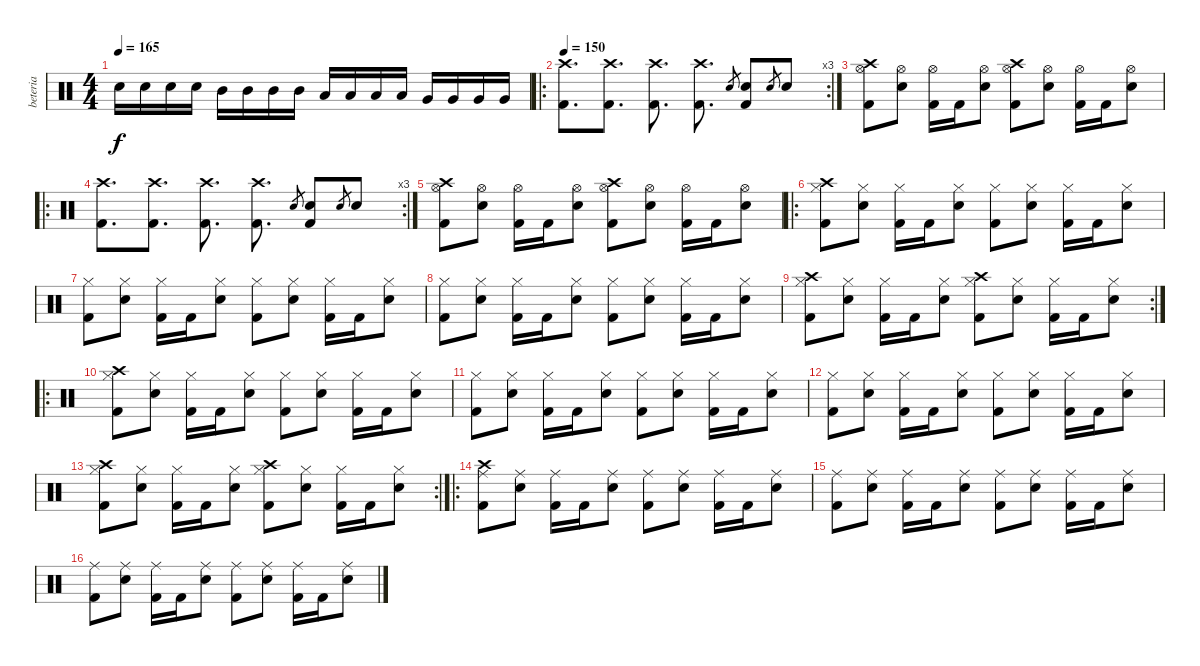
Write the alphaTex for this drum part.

\track ("beteria" "beteria") {instrument percussion}
\staff {score}
\articulation defaults
\ts (4 4)
\tempo 165
\clef neutral
\ks c "Electric Snare (hit)".16{dy f} "Electric Snare (hit)".16 "Electric Snare (hit)".16 "Electric Snare (hit)".16 "Mid Tom (hit)".16 "Mid Tom (hit)".16 "Mid Tom (hit)".16 "Mid Tom (hit)".16 "Low Tom (hit)".16 "Low Tom (hit)".16 "Low Tom (hit)".16 "Low Tom (hit)".16 "Very Low Tom (hit)".16 "Very Low Tom (hit)".16 "Very Low Tom (hit)".16 "Very Low Tom (hit)".16
|
\ro
\rc 3
\tempo 140
\tempo 150
("Kick (hit) 2" "Crash high (hit)").8{d} ("Kick (hit) 2" "Crash high (hit)").8{d} ("Kick (hit) 2" "Crash high (hit)").8{d} ("Kick (hit) 2" "Crash high (hit)").8{d} "Electric Snare (hit)".8{gr} ("Electric Snare (hit)" "Kick (hit) 2").8 "Electric Snare (hit)".8{gr} "Electric Snare (hit)".8 |
("Kick (hit) 2" "Hi-Hat (open)" "Crash high (hit)").8 ("Electric Snare (hit)" "Hi-Hat (open)").8 ("Kick (hit) 2" "Hi-Hat (open)").16 "Kick (hit) 2".16 ("Electric Snare (hit)" "Hi-Hat (open)").8 ("Kick (hit) 2" "Hi-Hat (open)" "Crash high (hit)").8 ("Electric Snare (hit)" "Hi-Hat (open)").8 ("Kick (hit) 2" "Hi-Hat (open)").16 "Kick (hit) 2".16 ("Electric Snare (hit)" "Hi-Hat (open)").8 |
\ro
\rc 3
("Kick (hit) 2" "Crash high (hit)").8{d} ("Kick (hit) 2" "Crash high (hit)").8{d} ("Kick (hit) 2" "Crash high (hit)").8{d} ("Kick (hit) 2" "Crash high (hit)").8{d} "Electric Snare (hit)".8{gr} ("Electric Snare (hit)" "Kick (hit) 2").8 "Electric Snare (hit)".8{gr} "Electric Snare (hit)".8 |
("Kick (hit) 2" "Hi-Hat (open)" "Crash high (hit)").8 ("Electric Snare (hit)" "Hi-Hat (open)").8 ("Kick (hit) 2" "Hi-Hat (open)").16 "Kick (hit) 2".16 ("Electric Snare (hit)" "Hi-Hat (open)").8 ("Kick (hit) 2" "Hi-Hat (open)" "Crash high (hit)").8 ("Electric Snare (hit)" "Hi-Hat (open)").8 ("Kick (hit) 2" "Hi-Hat (open)").16 "Kick (hit) 2".16 ("Electric Snare (hit)" "Hi-Hat (open)").8 |
\ro
("Kick (hit) 2" "Hi-Hat (closed)" "Crash high (hit)").8 ("Electric Snare (hit)" "Hi-Hat (closed)").8 ("Kick (hit) 2" "Hi-Hat (closed)").16 "Kick (hit) 2".16 ("Electric Snare (hit)" "Hi-Hat (closed)").8 ("Kick (hit) 2" "Hi-Hat (closed)").8 ("Electric Snare (hit)" "Hi-Hat (closed)").8 ("Kick (hit) 2" "Hi-Hat (closed)").16 "Kick (hit) 2".16 ("Electric Snare (hit)" "Hi-Hat (closed)").8 |
("Kick (hit) 2" "Hi-Hat (closed)").8 ("Electric Snare (hit)" "Hi-Hat (closed)").8 ("Kick (hit) 2" "Hi-Hat (closed)").16 "Kick (hit) 2".16 ("Electric Snare (hit)" "Hi-Hat (closed)").8 ("Kick (hit) 2" "Hi-Hat (closed)").8 ("Electric Snare (hit)" "Hi-Hat (closed)").8 ("Kick (hit) 2" "Hi-Hat (closed)").16 "Kick (hit) 2".16 ("Electric Snare (hit)" "Hi-Hat (closed)").8 |
("Kick (hit) 2" "Hi-Hat (closed)").8 ("Electric Snare (hit)" "Hi-Hat (closed)").8 ("Kick (hit) 2" "Hi-Hat (closed)").16 "Kick (hit) 2".16 ("Electric Snare (hit)" "Hi-Hat (closed)").8 ("Kick (hit) 2" "Hi-Hat (closed)").8 ("Electric Snare (hit)" "Hi-Hat (closed)").8 ("Kick (hit) 2" "Hi-Hat (closed)").16 "Kick (hit) 2".16 ("Electric Snare (hit)" "Hi-Hat (closed)").8 |
\rc 2
("Kick (hit) 2" "Hi-Hat (closed)" "Crash high (hit)").8 ("Electric Snare (hit)" "Hi-Hat (closed)").8 ("Kick (hit) 2" "Hi-Hat (closed)").16 "Kick (hit) 2".16 ("Electric Snare (hit)" "Hi-Hat (closed)").8 ("Kick (hit) 2" "Hi-Hat (closed)" "Crash high (hit)").8 ("Electric Snare (hit)" "Hi-Hat (closed)").8 ("Kick (hit) 2" "Hi-Hat (closed)").16 "Kick (hit) 2".16 ("Electric Snare (hit)" "Hi-Hat (closed)").8 |
\ro
("Kick (hit) 2" "Hi-Hat (closed)" "Crash high (hit)").8 ("Electric Snare (hit)" "Hi-Hat (closed)").8 ("Kick (hit) 2" "Hi-Hat (closed)").16 "Kick (hit) 2".16 ("Electric Snare (hit)" "Hi-Hat (closed)").8 ("Kick (hit) 2" "Hi-Hat (closed)").8 ("Electric Snare (hit)" "Hi-Hat (closed)").8 ("Kick (hit) 2" "Hi-Hat (closed)").16 "Kick (hit) 2".16 ("Electric Snare (hit)" "Hi-Hat (closed)").8 |
("Kick (hit) 2" "Hi-Hat (closed)").8 ("Electric Snare (hit)" "Hi-Hat (closed)").8 ("Kick (hit) 2" "Hi-Hat (closed)").16 "Kick (hit) 2".16 ("Electric Snare (hit)" "Hi-Hat (closed)").8 ("Kick (hit) 2" "Hi-Hat (closed)").8 ("Electric Snare (hit)" "Hi-Hat (closed)").8 ("Kick (hit) 2" "Hi-Hat (closed)").16 "Kick (hit) 2".16 ("Electric Snare (hit)" "Hi-Hat (closed)").8 |
("Kick (hit) 2" "Hi-Hat (closed)").8 ("Electric Snare (hit)" "Hi-Hat (closed)").8 ("Kick (hit) 2" "Hi-Hat (closed)").16 "Kick (hit) 2".16 ("Electric Snare (hit)" "Hi-Hat (closed)").8 ("Kick (hit) 2" "Hi-Hat (closed)").8 ("Electric Snare (hit)" "Hi-Hat (closed)").8 ("Kick (hit) 2" "Hi-Hat (closed)").16 "Kick (hit) 2".16 ("Electric Snare (hit)" "Hi-Hat (closed)").8 |
\rc 2
("Kick (hit) 2" "Hi-Hat (closed)" "Crash high (hit)").8 ("Electric Snare (hit)" "Hi-Hat (closed)").8 ("Kick (hit) 2" "Hi-Hat (closed)").16 "Kick (hit) 2".16 ("Electric Snare (hit)" "Hi-Hat (closed)").8 ("Kick (hit) 2" "Hi-Hat (closed)" "Crash high (hit)").8 ("Electric Snare (hit)" "Hi-Hat (closed)").8 ("Kick (hit) 2" "Hi-Hat (closed)").16 "Kick (hit) 2".16 ("Electric Snare (hit)" "Hi-Hat (closed)").8 |
\ro
("Kick (hit) 2" "Ride (middle)" "Crash high (hit)").8 ("Electric Snare (hit)" "Ride (middle)").8 ("Kick (hit) 2" "Ride (middle)").16 "Kick (hit) 2".16 ("Electric Snare (hit)" "Ride (middle)").8 ("Kick (hit) 2" "Ride (middle)").8 ("Electric Snare (hit)" "Ride (middle)").8 ("Kick (hit) 2" "Ride (middle)").16 "Kick (hit) 2".16 ("Electric Snare (hit)" "Ride (middle)").8 |
("Kick (hit) 2" "Ride (middle)").8 ("Electric Snare (hit)" "Ride (middle)").8 ("Kick (hit) 2" "Ride (middle)").16 "Kick (hit) 2".16 ("Electric Snare (hit)" "Ride (middle)").8 ("Kick (hit) 2" "Ride (middle)").8 ("Electric Snare (hit)" "Ride (middle)").8 ("Kick (hit) 2" "Ride (middle)").16 "Kick (hit) 2".16 ("Electric Snare (hit)" "Ride (middle)").8 |
("Kick (hit) 2" "Ride (middle)").8 ("Electric Snare (hit)" "Ride (middle)").8 ("Kick (hit) 2" "Ride (middle)").16 "Kick (hit) 2".16 ("Electric Snare (hit)" "Ride (middle)").8 ("Kick (hit) 2" "Ride (middle)").8 ("Electric Snare (hit)" "Ride (middle)").8 ("Kick (hit) 2" "Ride (middle)").16 "Kick (hit) 2".16 ("Electric Snare (hit)" "Ride (middle)").8
